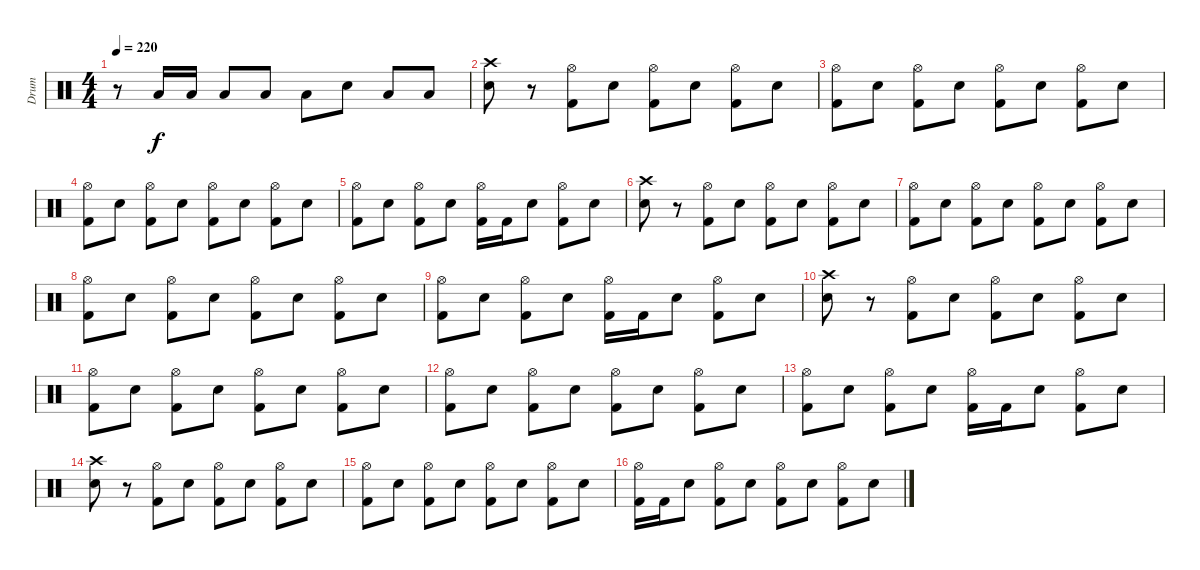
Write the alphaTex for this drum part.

\track ("Drum" "Drum") {instrument percussion}
\staff {score}
\articulation defaults
\ts (4 4)
\tempo 220
\clef neutral
\ks c
r.8{dy f} "Low Tom (hit)".16 "Low Tom (hit)".16 "Low Tom (hit)".8 "Low Tom (hit)".8 "Low Tom (hit)".8 "Snare (hit) 2".8 "Low Tom (hit)".8 "Low Tom (hit)".8 |
("Crash high (hit)" "Snare (hit) 2").8 r.8 ("Hi-Hat (open)" "Kick (hit) 2").8 "Snare (hit) 2".8 ("Hi-Hat (open)" "Kick (hit) 2").8 "Snare (hit) 2".8 ("Hi-Hat (open)" "Kick (hit) 2").8 "Snare (hit) 2".8 |
("Hi-Hat (open)" "Kick (hit) 2").8 "Snare (hit) 2".8 ("Hi-Hat (open)" "Kick (hit) 2").8 "Snare (hit) 2".8 ("Hi-Hat (open)" "Kick (hit) 2").8 "Snare (hit) 2".8 ("Hi-Hat (open)" "Kick (hit) 2").8 "Snare (hit) 2".8 |
("Hi-Hat (open)" "Kick (hit) 2").8 "Snare (hit) 2".8 ("Hi-Hat (open)" "Kick (hit) 2").8 "Snare (hit) 2".8 ("Hi-Hat (open)" "Kick (hit) 2").8 "Snare (hit) 2".8 ("Hi-Hat (open)" "Kick (hit) 2").8 "Snare (hit) 2".8 |
("Hi-Hat (open)" "Kick (hit) 2").8 "Snare (hit) 2".8 ("Hi-Hat (open)" "Kick (hit) 2").8 "Snare (hit) 2".8 ("Hi-Hat (open)" "Kick (hit) 2").16 "Kick (hit) 2".16 "Snare (hit) 2".8 ("Hi-Hat (open)" "Kick (hit) 2").8 "Snare (hit) 2".8 |
("Crash high (hit)" "Snare (hit) 2").8 r.8 ("Hi-Hat (open)" "Kick (hit) 2").8 "Snare (hit) 2".8 ("Hi-Hat (open)" "Kick (hit) 2").8 "Snare (hit) 2".8 ("Hi-Hat (open)" "Kick (hit) 2").8 "Snare (hit) 2".8 |
("Hi-Hat (open)" "Kick (hit) 2").8 "Snare (hit) 2".8 ("Hi-Hat (open)" "Kick (hit) 2").8 "Snare (hit) 2".8 ("Hi-Hat (open)" "Kick (hit) 2").8 "Snare (hit) 2".8 ("Hi-Hat (open)" "Kick (hit) 2").8 "Snare (hit) 2".8 |
("Hi-Hat (open)" "Kick (hit) 2").8 "Snare (hit) 2".8 ("Hi-Hat (open)" "Kick (hit) 2").8 "Snare (hit) 2".8 ("Hi-Hat (open)" "Kick (hit) 2").8 "Snare (hit) 2".8 ("Hi-Hat (open)" "Kick (hit) 2").8 "Snare (hit) 2".8 |
("Hi-Hat (open)" "Kick (hit) 2").8 "Snare (hit) 2".8 ("Hi-Hat (open)" "Kick (hit) 2").8 "Snare (hit) 2".8 ("Hi-Hat (open)" "Kick (hit) 2").16 "Kick (hit) 2".16 "Snare (hit) 2".8 ("Hi-Hat (open)" "Kick (hit) 2").8 "Snare (hit) 2".8 |
("Crash high (hit)" "Snare (hit) 2").8 r.8 ("Hi-Hat (open)" "Kick (hit) 2").8 "Snare (hit) 2".8 ("Hi-Hat (open)" "Kick (hit) 2").8 "Snare (hit) 2".8 ("Hi-Hat (open)" "Kick (hit) 2").8 "Snare (hit) 2".8 |
("Hi-Hat (open)" "Kick (hit) 2").8 "Snare (hit) 2".8 ("Hi-Hat (open)" "Kick (hit) 2").8 "Snare (hit) 2".8 ("Hi-Hat (open)" "Kick (hit) 2").8 "Snare (hit) 2".8 ("Hi-Hat (open)" "Kick (hit) 2").8 "Snare (hit) 2".8 |
("Hi-Hat (open)" "Kick (hit) 2").8 "Snare (hit) 2".8 ("Hi-Hat (open)" "Kick (hit) 2").8 "Snare (hit) 2".8 ("Hi-Hat (open)" "Kick (hit) 2").8 "Snare (hit) 2".8 ("Hi-Hat (open)" "Kick (hit) 2").8 "Snare (hit) 2".8 |
("Hi-Hat (open)" "Kick (hit) 2").8 "Snare (hit) 2".8 ("Hi-Hat (open)" "Kick (hit) 2").8 "Snare (hit) 2".8 ("Hi-Hat (open)" "Kick (hit) 2").16 "Kick (hit) 2".16 "Snare (hit) 2".8 ("Hi-Hat (open)" "Kick (hit) 2").8 "Snare (hit) 2".8 |
("Crash high (hit)" "Snare (hit) 2").8 r.8 ("Hi-Hat (open)" "Kick (hit) 2").8 "Snare (hit) 2".8 ("Hi-Hat (open)" "Kick (hit) 2").8 "Snare (hit) 2".8 ("Hi-Hat (open)" "Kick (hit) 2").8 "Snare (hit) 2".8 |
("Hi-Hat (open)" "Kick (hit) 2").8 "Snare (hit) 2".8 ("Hi-Hat (open)" "Kick (hit) 2").8 "Snare (hit) 2".8 ("Hi-Hat (open)" "Kick (hit) 2").8 "Snare (hit) 2".8 ("Hi-Hat (open)" "Kick (hit) 2").8 "Snare (hit) 2".8 |
("Hi-Hat (open)" "Kick (hit) 2").16 "Kick (hit) 2".16 "Snare (hit) 2".8 ("Hi-Hat (open)" "Kick (hit) 2").8 "Snare (hit) 2".8 ("Hi-Hat (open)" "Kick (hit) 2").8 "Snare (hit) 2".8 ("Hi-Hat (open)" "Kick (hit) 2").8 "Snare (hit) 2".8
